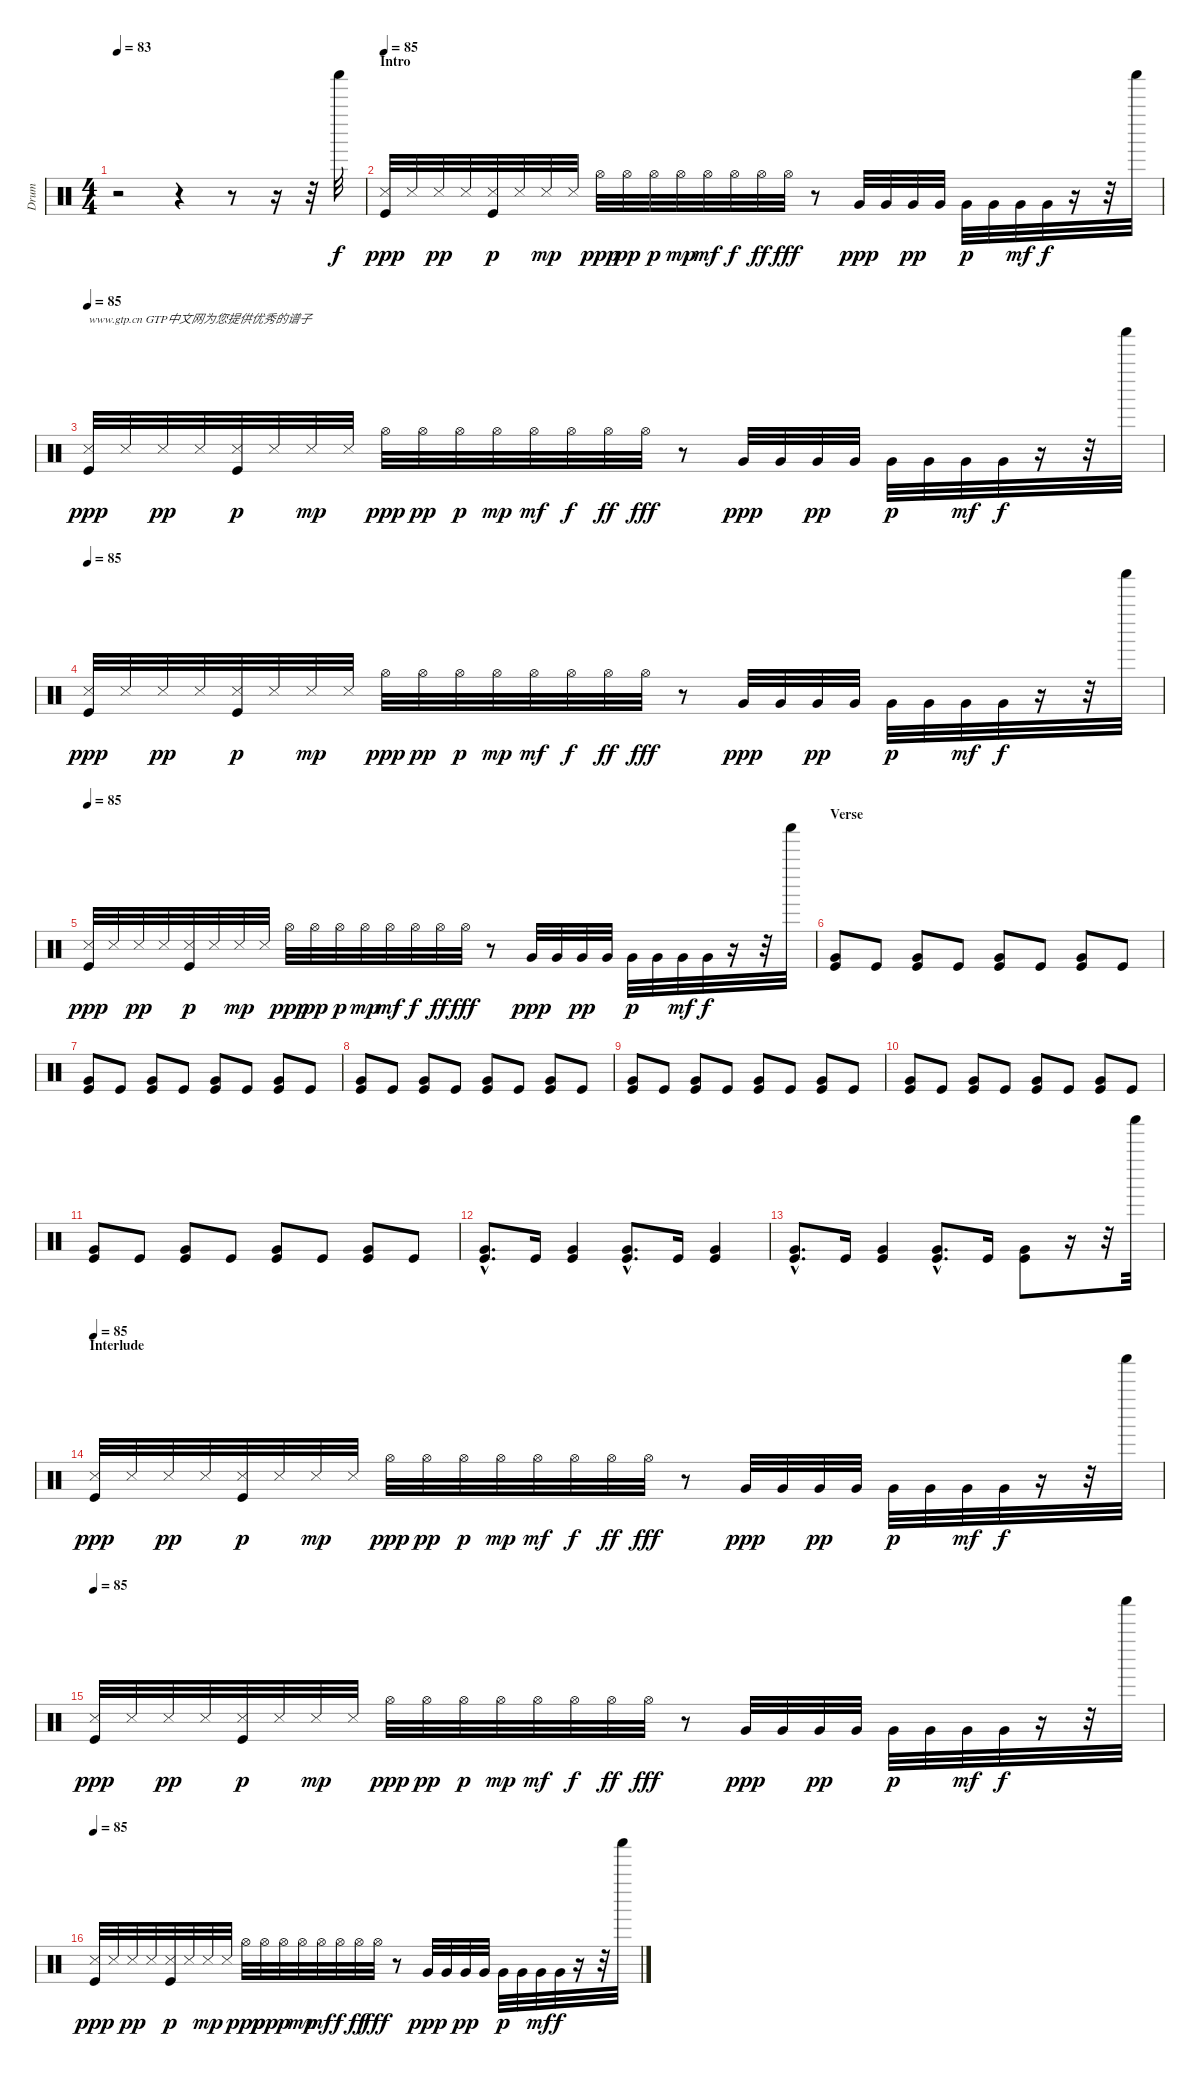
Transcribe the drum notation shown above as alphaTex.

\track ("Drum" "Drum") {instrument percussion}
\staff {score}
\articulation defaults
\ts (4 4)
\tempo 83
\tempo 85
\tempo 83
\clef neutral
\ks c
r.2{dy f} r.4 r.8 r.16 r.32 "Shaker (hit)".32 |
\section ("" "Intro")
\tempo 85
("Snare (side stick) 3" "Kick (hit)").32{dy ppp} "Snare (side stick) 3".32 "Snare (side stick) 3".32{dy pp} "Snare (side stick) 3".32 ("Snare (side stick) 3" "Kick (hit)").32{dy p} "Snare (side stick) 3".32 "Snare (side stick) 3".32{dy mp} "Snare (side stick) 3".32 "Hi-Hat (open)".32{dy ppp} "Hi-Hat (open)".32{dy pp} "Hi-Hat (open)".32{dy p} "Hi-Hat (open)".32{dy mp} "Hi-Hat (open)".32{dy mf} "Hi-Hat (open)".32{dy f} "Hi-Hat (open)".32{dy ff} "Hi-Hat (open)".32{dy fff} r.8 "Very Low Tom (hit)".32{dy ppp} "Very Low Tom (hit)".32 "Very Low Tom (hit)".32{dy pp} "Very Low Tom (hit)".32 "Very Low Tom (hit)".32{dy p} "Very Low Tom (hit)".32 "Very Low Tom (hit)".32{dy mf} "Very Low Tom (hit)".32{dy f} r.16 r.32 "Shaker (hit)".32 |
\tempo 85
("Snare (side stick) 3" "Kick (hit)").32{txt "www.gtp.cn GTP中文网为您提供优秀的谱子" dy ppp} "Snare (side stick) 3".32 "Snare (side stick) 3".32{dy pp} "Snare (side stick) 3".32 ("Snare (side stick) 3" "Kick (hit)").32{dy p} "Snare (side stick) 3".32 "Snare (side stick) 3".32{dy mp} "Snare (side stick) 3".32 "Hi-Hat (open)".32{dy ppp} "Hi-Hat (open)".32{dy pp} "Hi-Hat (open)".32{dy p} "Hi-Hat (open)".32{dy mp} "Hi-Hat (open)".32{dy mf} "Hi-Hat (open)".32{dy f} "Hi-Hat (open)".32{dy ff} "Hi-Hat (open)".32{dy fff} r.8 "Very Low Tom (hit)".32{dy ppp} "Very Low Tom (hit)".32 "Very Low Tom (hit)".32{dy pp} "Very Low Tom (hit)".32 "Very Low Tom (hit)".32{dy p} "Very Low Tom (hit)".32 "Very Low Tom (hit)".32{dy mf} "Very Low Tom (hit)".32{dy f} r.16 r.32 "Shaker (hit)".32 |
\tempo 85
("Snare (side stick) 3" "Kick (hit)").32{dy ppp} "Snare (side stick) 3".32 "Snare (side stick) 3".32{dy pp} "Snare (side stick) 3".32 ("Snare (side stick) 3" "Kick (hit)").32{dy p} "Snare (side stick) 3".32 "Snare (side stick) 3".32{dy mp} "Snare (side stick) 3".32 "Hi-Hat (open)".32{dy ppp} "Hi-Hat (open)".32{dy pp} "Hi-Hat (open)".32{dy p} "Hi-Hat (open)".32{dy mp} "Hi-Hat (open)".32{dy mf} "Hi-Hat (open)".32{dy f} "Hi-Hat (open)".32{dy ff} "Hi-Hat (open)".32{dy fff} r.8 "Very Low Tom (hit)".32{dy ppp} "Very Low Tom (hit)".32 "Very Low Tom (hit)".32{dy pp} "Very Low Tom (hit)".32 "Very Low Tom (hit)".32{dy p} "Very Low Tom (hit)".32 "Very Low Tom (hit)".32{dy mf} "Very Low Tom (hit)".32{dy f} r.16 r.32 "Shaker (hit)".32 |
\tempo 85
("Snare (side stick) 3" "Kick (hit)").32{dy ppp} "Snare (side stick) 3".32 "Snare (side stick) 3".32{dy pp} "Snare (side stick) 3".32 ("Snare (side stick) 3" "Kick (hit)").32{dy p} "Snare (side stick) 3".32 "Snare (side stick) 3".32{dy mp} "Snare (side stick) 3".32 "Hi-Hat (open)".32{dy ppp} "Hi-Hat (open)".32{dy pp} "Hi-Hat (open)".32{dy p} "Hi-Hat (open)".32{dy mp} "Hi-Hat (open)".32{dy mf} "Hi-Hat (open)".32{dy f} "Hi-Hat (open)".32{dy ff} "Hi-Hat (open)".32{dy fff} r.8 "Very Low Tom (hit)".32{dy ppp} "Very Low Tom (hit)".32 "Very Low Tom (hit)".32{dy pp} "Very Low Tom (hit)".32 "Very Low Tom (hit)".32{dy p} "Very Low Tom (hit)".32 "Very Low Tom (hit)".32{dy mf} "Very Low Tom (hit)".32{dy f} r.16 r.32 "Shaker (hit)".32 |
\section ("" "Verse")
("Very Low Tom (hit)" "Kick (hit)").8 "Kick (hit)".8 ("Very Low Tom (hit)" "Kick (hit)").8 "Kick (hit)".8 ("Very Low Tom (hit)" "Kick (hit)").8 "Kick (hit)".8 ("Very Low Tom (hit)" "Kick (hit)").8 "Kick (hit)".8 |
("Very Low Tom (hit)" "Kick (hit)").8 "Kick (hit)".8 ("Very Low Tom (hit)" "Kick (hit)").8 "Kick (hit)".8 ("Very Low Tom (hit)" "Kick (hit)").8 "Kick (hit)".8 ("Very Low Tom (hit)" "Kick (hit)").8 "Kick (hit)".8 |
("Very Low Tom (hit)" "Kick (hit)").8 "Kick (hit)".8 ("Very Low Tom (hit)" "Kick (hit)").8 "Kick (hit)".8 ("Very Low Tom (hit)" "Kick (hit)").8 "Kick (hit)".8 ("Very Low Tom (hit)" "Kick (hit)").8 "Kick (hit)".8 |
("Very Low Tom (hit)" "Kick (hit)").8 "Kick (hit)".8 ("Very Low Tom (hit)" "Kick (hit)").8 "Kick (hit)".8 ("Very Low Tom (hit)" "Kick (hit)").8 "Kick (hit)".8 ("Very Low Tom (hit)" "Kick (hit)").8 "Kick (hit)".8 |
("Very Low Tom (hit)" "Kick (hit)").8 "Kick (hit)".8 ("Very Low Tom (hit)" "Kick (hit)").8 "Kick (hit)".8 ("Very Low Tom (hit)" "Kick (hit)").8 "Kick (hit)".8 ("Very Low Tom (hit)" "Kick (hit)").8 "Kick (hit)".8 |
("Very Low Tom (hit)" "Kick (hit)").8 "Kick (hit)".8 ("Very Low Tom (hit)" "Kick (hit)").8 "Kick (hit)".8 ("Very Low Tom (hit)" "Kick (hit)").8 "Kick (hit)".8 ("Very Low Tom (hit)" "Kick (hit)").8 "Kick (hit)".8 |
("Very Low Tom (hit)"{hac} "Kick (hit)"{hac}).8{d} "Kick (hit)".16 ("Very Low Tom (hit)" "Kick (hit)").4 ("Very Low Tom (hit)"{hac} "Kick (hit)"{hac}).8{d} "Kick (hit)".16 ("Very Low Tom (hit)" "Kick (hit)").4 |
("Very Low Tom (hit)"{hac} "Kick (hit)"{hac}).8{d} "Kick (hit)".16 ("Very Low Tom (hit)" "Kick (hit)").4 ("Very Low Tom (hit)"{hac} "Kick (hit)"{hac}).8{d} "Kick (hit)".16 ("Very Low Tom (hit)" "Kick (hit)").8 r.16 r.32 "Shaker (hit)".32 |
\section ("" "Interlude")
\tempo 85
("Snare (side stick) 3" "Kick (hit)").32{dy ppp} "Snare (side stick) 3".32 "Snare (side stick) 3".32{dy pp} "Snare (side stick) 3".32 ("Snare (side stick) 3" "Kick (hit)").32{dy p} "Snare (side stick) 3".32 "Snare (side stick) 3".32{dy mp} "Snare (side stick) 3".32 "Hi-Hat (open)".32{dy ppp} "Hi-Hat (open)".32{dy pp} "Hi-Hat (open)".32{dy p} "Hi-Hat (open)".32{dy mp} "Hi-Hat (open)".32{dy mf} "Hi-Hat (open)".32{dy f} "Hi-Hat (open)".32{dy ff} "Hi-Hat (open)".32{dy fff} r.8 "Very Low Tom (hit)".32{dy ppp} "Very Low Tom (hit)".32 "Very Low Tom (hit)".32{dy pp} "Very Low Tom (hit)".32 "Very Low Tom (hit)".32{dy p} "Very Low Tom (hit)".32 "Very Low Tom (hit)".32{dy mf} "Very Low Tom (hit)".32{dy f} r.16 r.32 "Shaker (hit)".32 |
\tempo 85
("Snare (side stick) 3" "Kick (hit)").32{dy ppp} "Snare (side stick) 3".32 "Snare (side stick) 3".32{dy pp} "Snare (side stick) 3".32 ("Snare (side stick) 3" "Kick (hit)").32{dy p} "Snare (side stick) 3".32 "Snare (side stick) 3".32{dy mp} "Snare (side stick) 3".32 "Hi-Hat (open)".32{dy ppp} "Hi-Hat (open)".32{dy pp} "Hi-Hat (open)".32{dy p} "Hi-Hat (open)".32{dy mp} "Hi-Hat (open)".32{dy mf} "Hi-Hat (open)".32{dy f} "Hi-Hat (open)".32{dy ff} "Hi-Hat (open)".32{dy fff} r.8 "Very Low Tom (hit)".32{dy ppp} "Very Low Tom (hit)".32 "Very Low Tom (hit)".32{dy pp} "Very Low Tom (hit)".32 "Very Low Tom (hit)".32{dy p} "Very Low Tom (hit)".32 "Very Low Tom (hit)".32{dy mf} "Very Low Tom (hit)".32{dy f} r.16 r.32 "Shaker (hit)".32 |
\tempo 85
("Snare (side stick) 3" "Kick (hit)").32{dy ppp} "Snare (side stick) 3".32 "Snare (side stick) 3".32{dy pp} "Snare (side stick) 3".32 ("Snare (side stick) 3" "Kick (hit)").32{dy p} "Snare (side stick) 3".32 "Snare (side stick) 3".32{dy mp} "Snare (side stick) 3".32 "Hi-Hat (open)".32{dy ppp} "Hi-Hat (open)".32{dy pp} "Hi-Hat (open)".32{dy p} "Hi-Hat (open)".32{dy mp} "Hi-Hat (open)".32{dy mf} "Hi-Hat (open)".32{dy f} "Hi-Hat (open)".32{dy ff} "Hi-Hat (open)".32{dy fff} r.8 "Very Low Tom (hit)".32{dy ppp} "Very Low Tom (hit)".32 "Very Low Tom (hit)".32{dy pp} "Very Low Tom (hit)".32 "Very Low Tom (hit)".32{dy p} "Very Low Tom (hit)".32 "Very Low Tom (hit)".32{dy mf} "Very Low Tom (hit)".32{dy f} r.16 r.32 "Shaker (hit)".32
